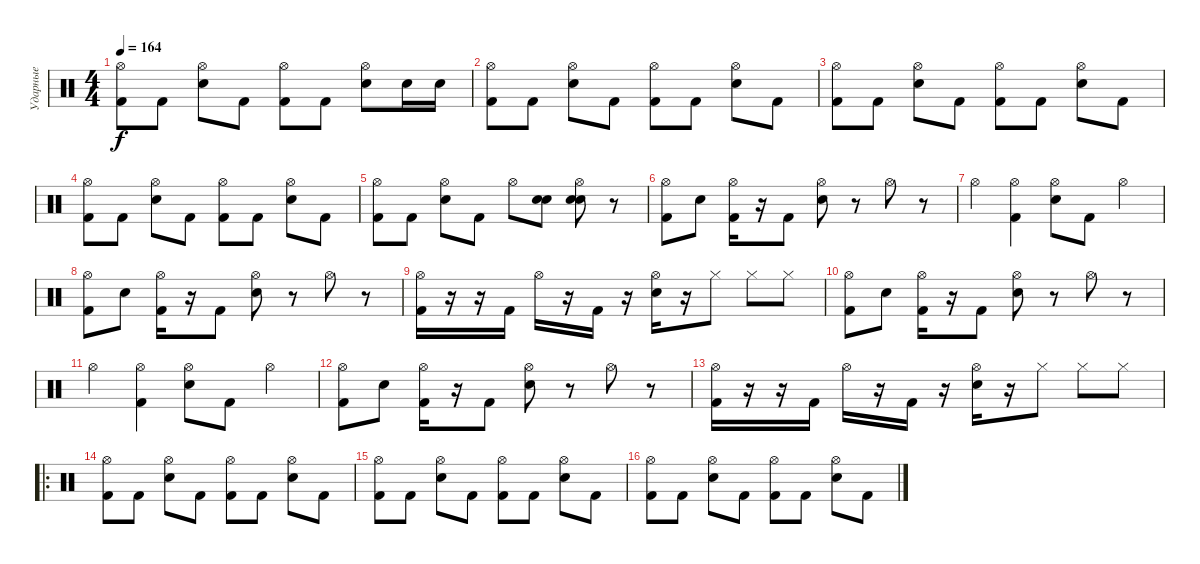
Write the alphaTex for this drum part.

\track ("Ударные" "Ударные") {instrument percussion}
\staff {score}
\articulation defaults
\ts (4 4)
\tempo 164
\clef neutral
\ks c
("Hi-Hat (open)" "Kick (hit) 2").8{dy f} "Kick (hit) 2".8 ("Hi-Hat (open)" "Snare (hit) 2").8 "Kick (hit) 2".8 ("Hi-Hat (open)" "Kick (hit) 2").8 "Kick (hit) 2".8 ("Hi-Hat (open)" "Snare (hit) 2").8 "Snare (hit) 2".16 "Snare (hit) 2".16 |
("Hi-Hat (open)" "Kick (hit) 2").8 "Kick (hit) 2".8 ("Hi-Hat (open)" "Snare (hit) 2").8 "Kick (hit) 2".8 ("Hi-Hat (open)" "Kick (hit) 2").8 "Kick (hit) 2".8 ("Hi-Hat (open)" "Snare (hit) 2").8 "Kick (hit) 2".8 |
("Hi-Hat (open)" "Kick (hit) 2").8 "Kick (hit) 2".8 ("Hi-Hat (open)" "Snare (hit) 2").8 "Kick (hit) 2".8 ("Hi-Hat (open)" "Kick (hit) 2").8 "Kick (hit) 2".8 ("Hi-Hat (open)" "Snare (hit) 2").8 "Kick (hit) 2".8 |
("Hi-Hat (open)" "Kick (hit) 2").8 "Kick (hit) 2".8 ("Hi-Hat (open)" "Snare (hit) 2").8 "Kick (hit) 2".8 ("Hi-Hat (open)" "Kick (hit) 2").8 "Kick (hit) 2".8 ("Hi-Hat (open)" "Snare (hit) 2").8 "Kick (hit) 2".8 |
("Hi-Hat (open)" "Kick (hit) 2").8 "Kick (hit) 2".8 ("Hi-Hat (open)" "Snare (hit) 2").8 "Kick (hit) 2".8 "Hi-Hat (open)".8 ("Snare (hit) 2" "Snare (hit) 2").8 ("Hi-Hat (open)" "Snare (hit) 2" "Snare (hit) 2").8 r.8 |
("Hi-Hat (open)" "Kick (hit) 2").8 "Snare (hit) 2".8 ("Hi-Hat (open)" "Kick (hit) 2").16 r.16 "Kick (hit) 2".8 ("Hi-Hat (open)" "Snare (hit) 2").8 r.8 "Hi-Hat (open)".8 r.8 |
"Hi-Hat (open)".4 ("Hi-Hat (open)" "Kick (hit) 2").4 ("Hi-Hat (open)" "Snare (hit) 2").8 "Kick (hit) 2".8 "Hi-Hat (open)".4 |
("Hi-Hat (open)" "Kick (hit) 2").8 "Snare (hit) 2".8 ("Hi-Hat (open)" "Kick (hit) 2").16 r.16 "Kick (hit) 2".8 ("Hi-Hat (open)" "Snare (hit) 2").8 r.8 "Hi-Hat (open)".8 r.8 |
("Hi-Hat (open)" "Kick (hit) 2").16 r.16 r.16 "Kick (hit) 2".16 "Hi-Hat (open)".16 r.16 "Kick (hit) 2".16 r.16 ("Hi-Hat (open)" "Snare (hit) 2").16 r.16 "Hi-Hat (closed)".8 "Hi-Hat (closed)".8 "Hi-Hat (closed)".8 |
("Hi-Hat (open)" "Kick (hit) 2").8 "Snare (hit) 2".8 ("Hi-Hat (open)" "Kick (hit) 2").16 r.16 "Kick (hit) 2".8 ("Hi-Hat (open)" "Snare (hit) 2").8 r.8 "Hi-Hat (open)".8 r.8 |
"Hi-Hat (open)".4 ("Hi-Hat (open)" "Kick (hit) 2").4 ("Hi-Hat (open)" "Snare (hit) 2").8 "Kick (hit) 2".8 "Hi-Hat (open)".4 |
("Hi-Hat (open)" "Kick (hit) 2").8 "Snare (hit) 2".8 ("Hi-Hat (open)" "Kick (hit) 2").16 r.16 "Kick (hit) 2".8 ("Hi-Hat (open)" "Snare (hit) 2").8 r.8 "Hi-Hat (open)".8 r.8 |
("Hi-Hat (open)" "Kick (hit) 2").16 r.16 r.16 "Kick (hit) 2".16 "Hi-Hat (open)".16 r.16 "Kick (hit) 2".16 r.16 ("Hi-Hat (open)" "Snare (hit) 2").16 r.16 "Hi-Hat (closed)".8 "Hi-Hat (closed)".8 "Hi-Hat (closed)".8 |
\ro
("Hi-Hat (open)" "Kick (hit) 2").8 "Kick (hit) 2".8 ("Hi-Hat (open)" "Snare (hit) 2").8 "Kick (hit) 2".8 ("Hi-Hat (open)" "Kick (hit) 2").8 "Kick (hit) 2".8 ("Hi-Hat (open)" "Snare (hit) 2").8 "Kick (hit) 2".8 |
("Hi-Hat (open)" "Kick (hit) 2").8 "Kick (hit) 2".8 ("Hi-Hat (open)" "Snare (hit) 2").8 "Kick (hit) 2".8 ("Hi-Hat (open)" "Kick (hit) 2").8 "Kick (hit) 2".8 ("Hi-Hat (open)" "Snare (hit) 2").8 "Kick (hit) 2".8 |
("Hi-Hat (open)" "Kick (hit) 2").8 "Kick (hit) 2".8 ("Hi-Hat (open)" "Snare (hit) 2").8 "Kick (hit) 2".8 ("Hi-Hat (open)" "Kick (hit) 2").8 "Kick (hit) 2".8 ("Hi-Hat (open)" "Snare (hit) 2").8 "Kick (hit) 2".8
